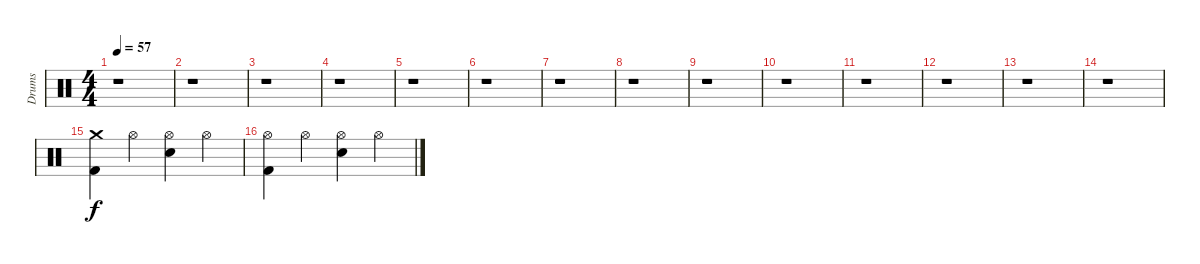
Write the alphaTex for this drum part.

\track ("Drums" "Drums") {instrument percussion}
\staff {score}
\articulation defaults
\ts (4 4)
\tempo 57
\clef neutral
\ks c
r.1{dy f} |
r.1 |
r.1 |
r.1 |
r.1 |
r.1 |
r.1 |
r.1 |
r.1 |
r.1 |
r.1 |
r.1 |
r.1 |
r.1 |
("Kick (hit) 2" "Crash medium (hit)").4 "Hi-Hat (open)".4 ("Snare (hit) 2" "Hi-Hat (open)").4 "Hi-Hat (open)".4 |
("Kick (hit) 2" "Hi-Hat (open)").4 "Hi-Hat (open)".4 ("Snare (hit) 2" "Hi-Hat (open)").4 "Hi-Hat (open)".4
